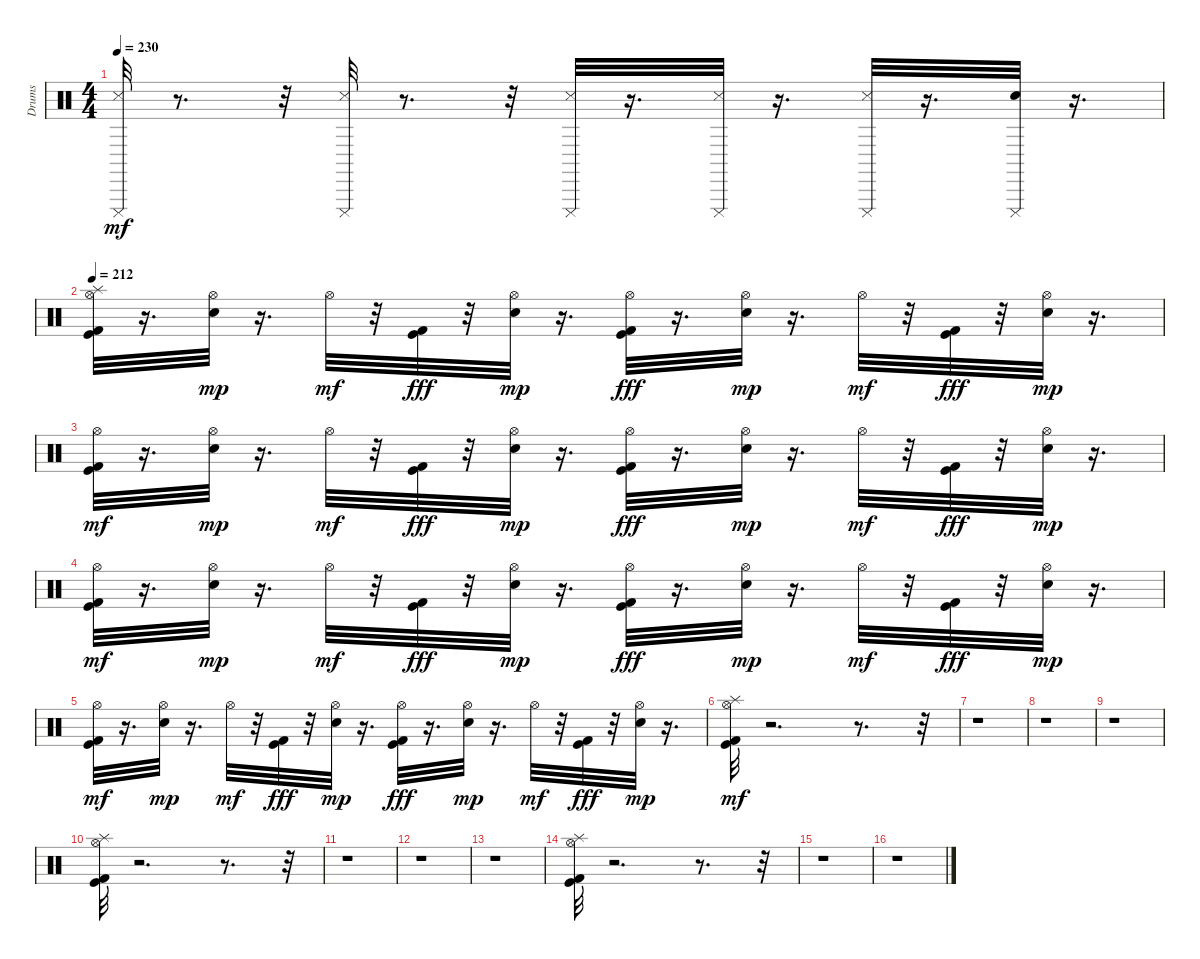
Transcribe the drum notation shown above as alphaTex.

\track ("Drums" "Drums") {instrument percussion}
\staff {score}
\articulation defaults
\ts (4 4)
\tempo 230
\clef neutral
\ks c
("Cuica (mute)" "Snare (side stick) 3").32{dy mf} r.8{d} r.32 ("Cuica (mute)" "Snare (side stick) 3").32 r.8{d} r.32 ("Cuica (mute)" "Snare (side stick) 3").32 r.16{d} ("Cuica (mute)" "Snare (side stick) 3").32 r.16{d} ("Cuica (mute)" "Snare (side stick) 3").32 r.16{d} ("Cuica (mute)" "Snare (hit) 2").32 r.16{d} |
\tempo 212
("Kick (hit) 2" "Kick (hit)" "Splash (hit)" "Hi-Hat (open)").32 r.16{d} ("Hi-Hat (open)" "Snare (hit) 2").32{dy mp} r.16{d} "Hi-Hat (open)".32{dy mf} r.32 ("Kick (hit)" "Kick (hit) 2").32{dy fff} r.32 ("Hi-Hat (open)" "Snare (hit) 2").32{dy mp} r.16{d} ("Hi-Hat (open)" "Kick (hit) 2" "Kick (hit)").32{dy fff} r.16{d} ("Hi-Hat (open)" "Snare (hit) 2").32{dy mp} r.16{d} "Hi-Hat (open)".32{dy mf} r.32 ("Kick (hit)" "Kick (hit) 2").32{dy fff} r.32 ("Hi-Hat (open)" "Snare (hit) 2").32{dy mp} r.16{d} |
("Kick (hit) 2" "Kick (hit)" "Hi-Hat (open)").32{dy mf} r.16{d} ("Hi-Hat (open)" "Snare (hit) 2").32{dy mp} r.16{d} "Hi-Hat (open)".32{dy mf} r.32 ("Kick (hit)" "Kick (hit) 2").32{dy fff} r.32 ("Hi-Hat (open)" "Snare (hit) 2").32{dy mp} r.16{d} ("Hi-Hat (open)" "Kick (hit) 2" "Kick (hit)").32{dy fff} r.16{d} ("Hi-Hat (open)" "Snare (hit) 2").32{dy mp} r.16{d} "Hi-Hat (open)".32{dy mf} r.32 ("Kick (hit)" "Kick (hit) 2").32{dy fff} r.32 ("Hi-Hat (open)" "Snare (hit) 2").32{dy mp} r.16{d} |
("Kick (hit) 2" "Kick (hit)" "Hi-Hat (open)").32{dy mf} r.16{d} ("Hi-Hat (open)" "Snare (hit) 2").32{dy mp} r.16{d} "Hi-Hat (open)".32{dy mf} r.32 ("Kick (hit)" "Kick (hit) 2").32{dy fff} r.32 ("Hi-Hat (open)" "Snare (hit) 2").32{dy mp} r.16{d} ("Hi-Hat (open)" "Kick (hit) 2" "Kick (hit)").32{dy fff} r.16{d} ("Hi-Hat (open)" "Snare (hit) 2").32{dy mp} r.16{d} "Hi-Hat (open)".32{dy mf} r.32 ("Kick (hit)" "Kick (hit) 2").32{dy fff} r.32 ("Hi-Hat (open)" "Snare (hit) 2").32{dy mp} r.16{d} |
("Kick (hit) 2" "Kick (hit)" "Hi-Hat (open)").32{dy mf} r.16{d} ("Hi-Hat (open)" "Snare (hit) 2").32{dy mp} r.16{d} "Hi-Hat (open)".32{dy mf} r.32 ("Kick (hit)" "Kick (hit) 2").32{dy fff} r.32 ("Hi-Hat (open)" "Snare (hit) 2").32{dy mp} r.16{d} ("Hi-Hat (open)" "Kick (hit) 2" "Kick (hit)").32{dy fff} r.16{d} ("Hi-Hat (open)" "Snare (hit) 2").32{dy mp} r.16{d} "Hi-Hat (open)".32{dy mf} r.32 ("Kick (hit)" "Kick (hit) 2").32{dy fff} r.32 ("Hi-Hat (open)" "Snare (hit) 2").32{dy mp} r.16{d} |
("Kick (hit) 2" "Kick (hit)" "Splash (hit)" "Hi-Hat (open)").32{dy mf} r.2{d} r.8{d} r.32 |
r.1 |
r.1 |
r.1 |
("Kick (hit) 2" "Kick (hit)" "Splash (hit)" "Hi-Hat (open)").32 r.2{d} r.8{d} r.32 |
r.1 |
r.1 |
r.1 |
("Kick (hit) 2" "Kick (hit)" "Splash (hit)" "Hi-Hat (open)").32 r.2{d} r.8{d} r.32 |
r.1 |
r.1
